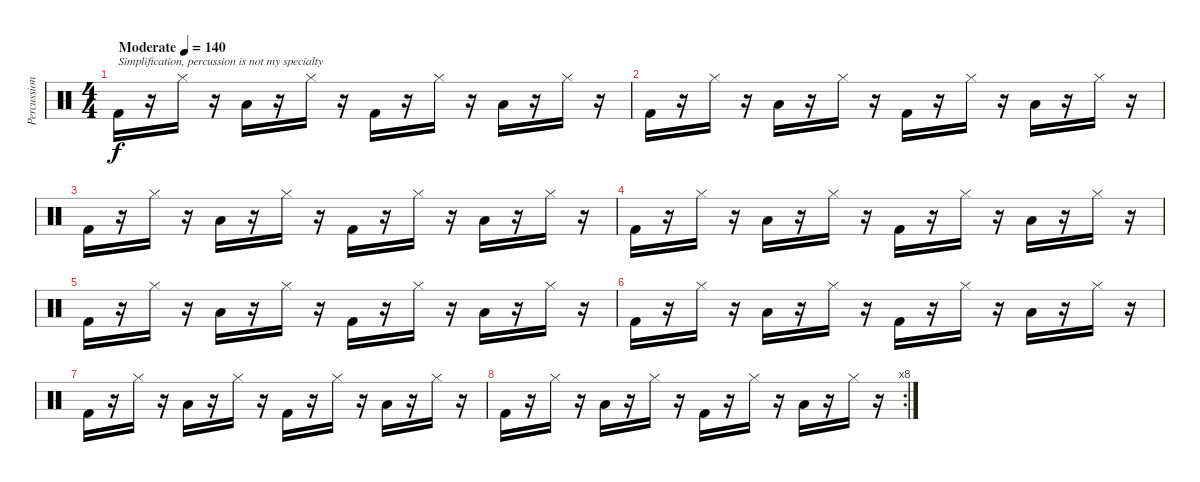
\track ("Percussion" "Percussion") {instrument percussion}
\staff {score}
\articulation defaults
\ts (4 4)
\tempo (140 "Moderate")
\clef neutral
\ks c "Kick (hit) 2".16{txt "Simplification, percussion is not my specialty" dy f}
r.16 "Hi-Hat (closed)".16 r.16 "Low Floor Tom (hit)".16 r.16 "Hi-Hat (closed)".16 r.16 "Kick (hit) 2".16 r.16 "Hi-Hat (closed)".16 r.16 "Low Floor Tom (hit)".16 r.16 "Hi-Hat (closed)".16 r.16 |
"Kick (hit) 2".16 r.16 "Hi-Hat (closed)".16 r.16 "Low Floor Tom (hit)".16 r.16 "Hi-Hat (closed)".16 r.16 "Kick (hit) 2".16 r.16 "Hi-Hat (closed)".16 r.16 "Low Floor Tom (hit)".16 r.16 "Hi-Hat (closed)".16 r.16 |
"Kick (hit) 2".16 r.16 "Hi-Hat (closed)".16 r.16 "Low Floor Tom (hit)".16 r.16 "Hi-Hat (closed)".16 r.16 "Kick (hit) 2".16 r.16 "Hi-Hat (closed)".16 r.16 "Low Floor Tom (hit)".16 r.16 "Hi-Hat (closed)".16 r.16 |
"Kick (hit) 2".16 r.16 "Hi-Hat (closed)".16 r.16 "Low Floor Tom (hit)".16 r.16 "Hi-Hat (closed)".16 r.16 "Kick (hit) 2".16 r.16 "Hi-Hat (closed)".16 r.16 "Low Floor Tom (hit)".16 r.16 "Hi-Hat (closed)".16 r.16 |
"Kick (hit) 2".16 r.16 "Hi-Hat (closed)".16 r.16 "Low Floor Tom (hit)".16 r.16 "Hi-Hat (closed)".16 r.16 "Kick (hit) 2".16 r.16 "Hi-Hat (closed)".16 r.16 "Low Floor Tom (hit)".16 r.16 "Hi-Hat (closed)".16 r.16 |
"Kick (hit) 2".16 r.16 "Hi-Hat (closed)".16 r.16 "Low Floor Tom (hit)".16 r.16 "Hi-Hat (closed)".16 r.16 "Kick (hit) 2".16 r.16 "Hi-Hat (closed)".16 r.16 "Low Floor Tom (hit)".16 r.16 "Hi-Hat (closed)".16 r.16 |
"Kick (hit) 2".16 r.16 "Hi-Hat (closed)".16 r.16 "Low Floor Tom (hit)".16 r.16 "Hi-Hat (closed)".16 r.16 "Kick (hit) 2".16 r.16 "Hi-Hat (closed)".16 r.16 "Low Floor Tom (hit)".16 r.16 "Hi-Hat (closed)".16 r.16 |
\rc 8 "Kick (hit) 2".16
r.16 "Hi-Hat (closed)".16 r.16 "Low Floor Tom (hit)".16 r.16 "Hi-Hat (closed)".16 r.16 "Kick (hit) 2".16 r.16 "Hi-Hat (closed)".16 r.16 "Low Floor Tom (hit)".16 r.16 "Hi-Hat (closed)".16 r.16
